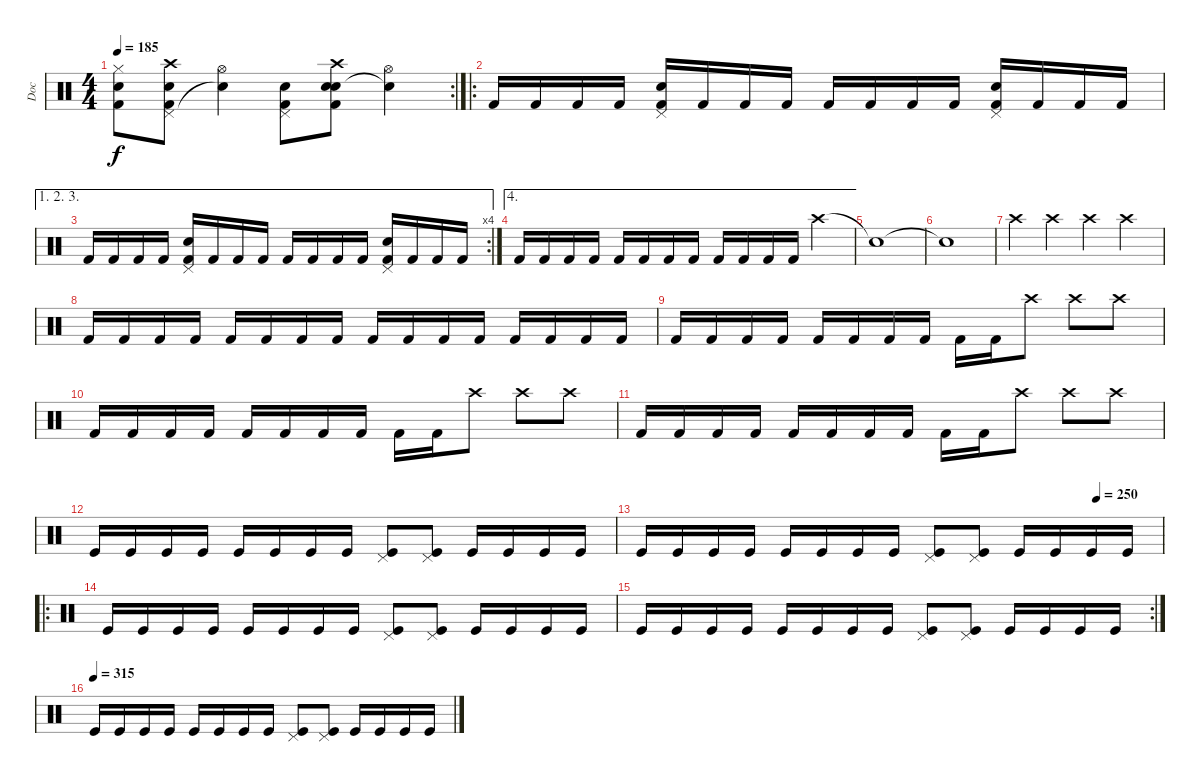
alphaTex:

\track ("Doc" "Doc") {instrument percussion}
\staff {score}
\articulation defaults
\rc 2
\ts (4 4)
\tempo 185
\clef neutral
\ks c
("Hi-Hat (closed)" "Snare (hit) 2" "Kick (hit) 2").8{dy f} ("Pedal Hi-Hat (hit)" "Crash high (hit)" "Snare (hit) 2" "Kick (hit) 2").8 ("Snare (hit)"{t} "Hi-Hat (open)").4 ("Pedal Hi-Hat (hit)" "Snare (hit) 2" "Kick (hit) 2").8 ("Snare (hit)" "Crash high (hit)" "Snare (hit) 2" "Kick (hit) 2").8 ("Snare (hit)"{t} "Hi-Hat (open)").4 |
\ro "Kick (hit) 2".16 "Kick (hit) 2".16 "Kick (hit) 2".16 "Kick (hit) 2".16
("Pedal Hi-Hat (hit)" "Snare (hit) 2" "Kick (hit) 2").16 "Kick (hit) 2".16 "Kick (hit) 2".16 "Kick (hit) 2".16 "Kick (hit) 2".16 "Kick (hit) 2".16 "Kick (hit) 2".16 "Kick (hit) 2".16 ("Pedal Hi-Hat (hit)" "Snare (hit) 2" "Kick (hit) 2").16 "Kick (hit) 2".16 "Kick (hit) 2".16 "Kick (hit) 2".16 |
\ae (1 2 3)
\rc 4 "Kick (hit) 2".16 "Kick (hit) 2".16 "Kick (hit) 2".16 "Kick (hit) 2".16
("Pedal Hi-Hat (hit)" "Snare (hit) 2" "Kick (hit) 2").16 "Kick (hit) 2".16 "Kick (hit) 2".16 "Kick (hit) 2".16 "Kick (hit) 2".16 "Kick (hit) 2".16 "Kick (hit) 2".16 "Kick (hit) 2".16 ("Pedal Hi-Hat (hit)" "Snare (hit) 2" "Kick (hit) 2").16 "Kick (hit) 2".16 "Kick (hit) 2".16 "Kick (hit) 2".16 |
\ae 4 "Kick (hit) 2".16 "Kick (hit) 2".16 "Kick (hit) 2".16 "Kick (hit) 2".16 "Kick (hit) 2".16 "Kick (hit) 2".16 "Kick (hit) 2".16 "Kick (hit) 2".16 "Kick (hit) 2".16 "Kick (hit) 2".16 "Kick (hit) 2".16 "Kick (hit) 2".16 "Crash high (hit)".4
|
"Snare (hit)"{t}.1 |
"Snare (hit)"{t}.1 |
"Crash high (hit)".4 "Crash high (hit)".4 "Crash high (hit)".4 "Crash high (hit)".4 |
"Kick (hit) 2".16 "Kick (hit) 2".16 "Kick (hit) 2".16 "Kick (hit) 2".16 "Kick (hit) 2".16 "Kick (hit) 2".16 "Kick (hit) 2".16 "Kick (hit) 2".16 "Kick (hit) 2".16 "Kick (hit) 2".16 "Kick (hit) 2".16 "Kick (hit) 2".16 "Kick (hit) 2".16 "Kick (hit) 2".16 "Kick (hit) 2".16 "Kick (hit) 2".16 |
"Kick (hit) 2".16 "Kick (hit) 2".16 "Kick (hit) 2".16 "Kick (hit) 2".16 "Kick (hit) 2".16 "Kick (hit) 2".16 "Kick (hit) 2".16 "Kick (hit) 2".16 "Kick (hit) 2".16 "Kick (hit) 2".16 "Crash high (hit)".8 "Crash high (hit)".8 "Crash high (hit)".8 |
"Kick (hit) 2".16 "Kick (hit) 2".16 "Kick (hit) 2".16 "Kick (hit) 2".16 "Kick (hit) 2".16 "Kick (hit) 2".16 "Kick (hit) 2".16 "Kick (hit) 2".16 "Kick (hit) 2".16 "Kick (hit) 2".16 "Crash high (hit)".8 "Crash high (hit)".8 "Crash high (hit)".8 |
"Kick (hit) 2".16 "Kick (hit) 2".16 "Kick (hit) 2".16 "Kick (hit) 2".16 "Kick (hit) 2".16 "Kick (hit) 2".16 "Kick (hit) 2".16 "Kick (hit) 2".16 "Kick (hit) 2".16 "Kick (hit) 2".16 "Crash high (hit)".8 "Crash high (hit)".8 "Crash high (hit)".8 |
"Kick (hit)".16 "Kick (hit)".16 "Kick (hit)".16 "Kick (hit)".16 "Kick (hit)".16 "Kick (hit)".16 "Kick (hit)".16 "Kick (hit)".16 ("Pedal Hi-Hat (hit)" "Kick (hit)").8 ("Pedal Hi-Hat (hit)" "Kick (hit)").8 "Kick (hit)".16 "Kick (hit)".16 "Kick (hit)".16 "Kick (hit)".16 |
\tempo (250 0.875)
"Kick (hit)".16 "Kick (hit)".16 "Kick (hit)".16 "Kick (hit)".16 "Kick (hit)".16 "Kick (hit)".16 "Kick (hit)".16 "Kick (hit)".16 ("Pedal Hi-Hat (hit)" "Kick (hit)").8 ("Pedal Hi-Hat (hit)" "Kick (hit)").8 "Kick (hit)".16 "Kick (hit)".16 "Kick (hit)".16 "Kick (hit)".16 |
\ro "Kick (hit)".16 "Kick (hit)".16 "Kick (hit)".16 "Kick (hit)".16 "Kick (hit)".16 "Kick (hit)".16 "Kick (hit)".16 "Kick (hit)".16
("Pedal Hi-Hat (hit)" "Kick (hit)").8 ("Pedal Hi-Hat (hit)" "Kick (hit)").8 "Kick (hit)".16 "Kick (hit)".16 "Kick (hit)".16 "Kick (hit)".16 |
\rc 2 "Kick (hit)".16 "Kick (hit)".16 "Kick (hit)".16 "Kick (hit)".16 "Kick (hit)".16 "Kick (hit)".16 "Kick (hit)".16 "Kick (hit)".16
("Pedal Hi-Hat (hit)" "Kick (hit)").8 ("Pedal Hi-Hat (hit)" "Kick (hit)").8 "Kick (hit)".16 "Kick (hit)".16 "Kick (hit)".16 "Kick (hit)".16 |
\tempo (315)
"Kick (hit)".16 "Kick (hit)".16 "Kick (hit)".16 "Kick (hit)".16 "Kick (hit)".16 "Kick (hit)".16 "Kick (hit)".16 "Kick (hit)".16 ("Pedal Hi-Hat (hit)" "Kick (hit)").8 ("Pedal Hi-Hat (hit)" "Kick (hit)").8 "Kick (hit)".16 "Kick (hit)".16 "Kick (hit)".16 "Kick (hit)".16
